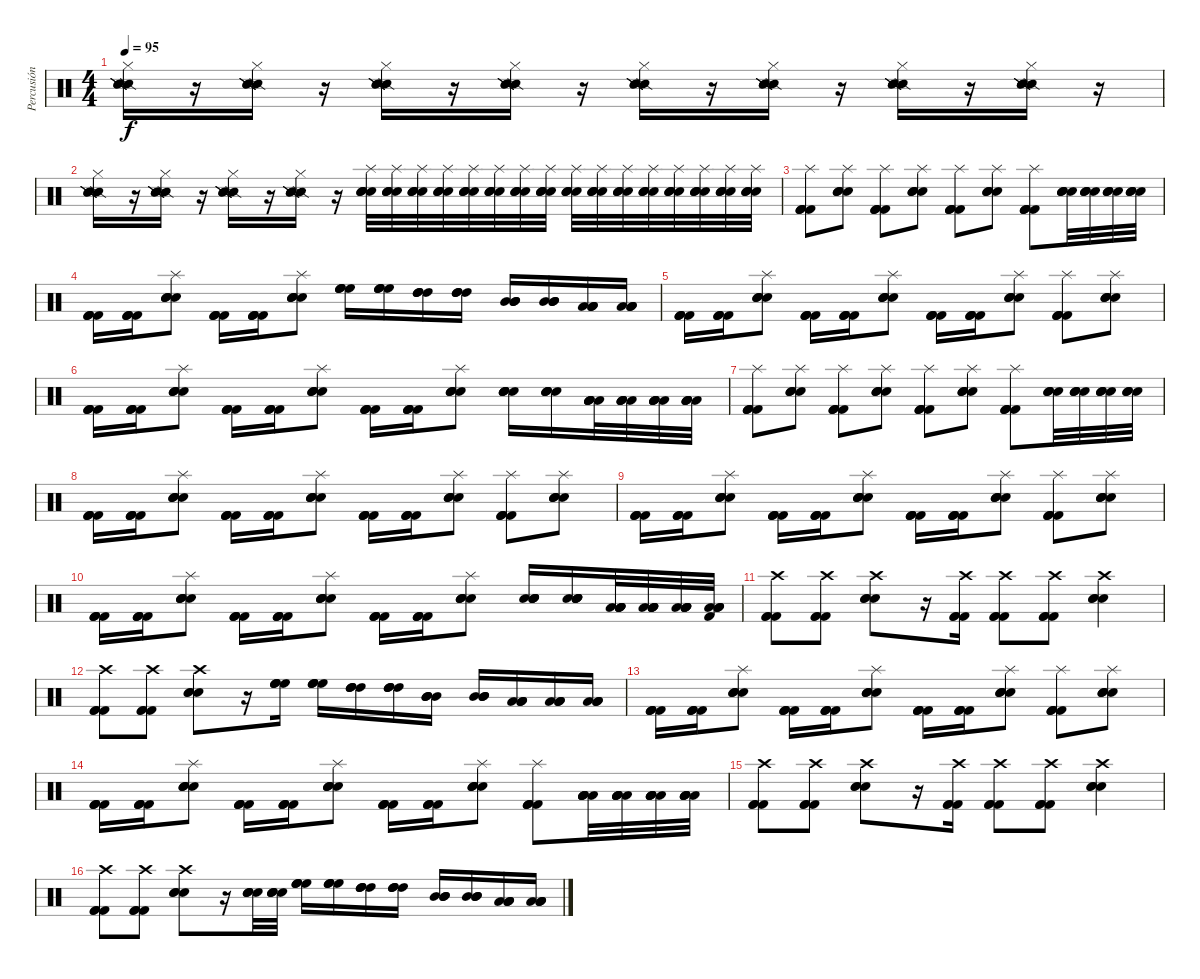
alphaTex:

\track ("Percusión" "Percusión") {instrument percussion}
\staff {score}
\articulation defaults
\ts (4 4)
\tempo 95
\clef neutral
\ks c
("Snare (side stick) 2" "Snare (side stick) 2" "Hi-Hat (closed)" "Snare (side stick) 2" "Snare (side stick) 2").16{dy f} r.16 ("Snare (side stick) 2" "Snare (side stick) 2" "Hi-Hat (closed)" "Snare (side stick) 2" "Snare (side stick) 2").16 r.16 ("Snare (side stick) 2" "Snare (side stick) 2" "Hi-Hat (closed)" "Snare (side stick) 2" "Snare (side stick) 2").16 r.16 ("Snare (side stick) 2" "Snare (side stick) 2" "Hi-Hat (closed)" "Snare (side stick) 2" "Snare (side stick) 2").16 r.16 ("Snare (side stick) 2" "Snare (side stick) 2" "Hi-Hat (closed)" "Snare (side stick) 2" "Snare (side stick) 2").16 r.16 ("Snare (side stick) 2" "Snare (side stick) 2" "Hi-Hat (closed)" "Snare (side stick) 2" "Snare (side stick) 2").16 r.16 ("Snare (side stick) 2" "Snare (side stick) 2" "Hi-Hat (closed)" "Snare (side stick) 2" "Snare (side stick) 2").16 r.16 ("Snare (side stick) 2" "Snare (side stick) 2" "Hi-Hat (closed)" "Snare (side stick) 2" "Snare (side stick) 2").16 r.16 |
("Snare (side stick) 2" "Snare (side stick) 2" "Hi-Hat (closed)" "Snare (side stick) 2" "Snare (side stick) 2").16 r.16 ("Snare (side stick) 2" "Snare (side stick) 2" "Hi-Hat (closed)" "Snare (side stick) 2" "Snare (side stick) 2").16 r.16 ("Snare (side stick) 2" "Snare (side stick) 2" "Hi-Hat (closed)" "Snare (side stick) 2" "Snare (side stick) 2").16 r.16 ("Snare (side stick) 2" "Snare (side stick) 2" "Hi-Hat (closed)" "Snare (side stick) 2" "Snare (side stick) 2").16 r.16 ("Electric Snare (hit)" "Splash (hit)" "Electric Snare (hit)" "Electric Snare (hit)" "Electric Snare (hit)").32 ("Electric Snare (hit)" "Splash (hit)" "Electric Snare (hit)" "Electric Snare (hit)" "Electric Snare (hit)").32 ("Electric Snare (hit)" "Splash (hit)" "Electric Snare (hit)" "Electric Snare (hit)" "Electric Snare (hit)").32 ("Electric Snare (hit)" "Splash (hit)" "Electric Snare (hit)" "Electric Snare (hit)" "Electric Snare (hit)").32 ("Electric Snare (hit)" "Splash (hit)" "Electric Snare (hit)" "Electric Snare (hit)" "Electric Snare (hit)").32 ("Electric Snare (hit)" "Splash (hit)" "Electric Snare (hit)" "Electric Snare (hit)" "Electric Snare (hit)").32 ("Electric Snare (hit)" "Splash (hit)" "Electric Snare (hit)" "Electric Snare (hit)" "Electric Snare (hit)").32 ("Electric Snare (hit)" "Splash (hit)" "Electric Snare (hit)" "Electric Snare (hit)" "Electric Snare (hit)").32 ("Electric Snare (hit)" "Splash (hit)" "Electric Snare (hit)" "Electric Snare (hit)" "Electric Snare (hit)").32 ("Electric Snare (hit)" "Splash (hit)" "Electric Snare (hit)" "Electric Snare (hit)" "Electric Snare (hit)").32 ("Electric Snare (hit)" "Splash (hit)" "Electric Snare (hit)" "Electric Snare (hit)" "Electric Snare (hit)").32 ("Electric Snare (hit)" "Splash (hit)" "Electric Snare (hit)" "Electric Snare (hit)" "Electric Snare (hit)").32 ("Electric Snare (hit)" "Splash (hit)" "Electric Snare (hit)" "Electric Snare (hit)" "Electric Snare (hit)").32 ("Electric Snare (hit)" "Splash (hit)" "Electric Snare (hit)" "Electric Snare (hit)" "Electric Snare (hit)").32 ("Electric Snare (hit)" "Splash (hit)" "Electric Snare (hit)" "Electric Snare (hit)" "Electric Snare (hit)").32 ("Electric Snare (hit)" "Splash (hit)" "Electric Snare (hit)" "Electric Snare (hit)" "Electric Snare (hit)").32 |
("Kick (hit) 2" "Kick (hit) 2" "Splash (hit)" "Kick (hit) 2" "Kick (hit) 2").8 ("Electric Snare (hit)" "Electric Snare (hit)" "Splash (hit)" "Electric Snare (hit)" "Electric Snare (hit)").8 ("Kick (hit) 2" "Kick (hit) 2" "Splash (hit)" "Kick (hit) 2" "Kick (hit) 2").8 ("Electric Snare (hit)" "Electric Snare (hit)" "Splash (hit)" "Electric Snare (hit)" "Electric Snare (hit)").8 ("Kick (hit) 2" "Kick (hit) 2" "Splash (hit)" "Kick (hit) 2" "Kick (hit) 2").8 ("Electric Snare (hit)" "Electric Snare (hit)" "Splash (hit)" "Electric Snare (hit)" "Electric Snare (hit)").8 ("Kick (hit) 2" "Kick (hit) 2" "Splash (hit)" "Kick (hit) 2" "Kick (hit) 2").8 ("Electric Snare (hit)" "Electric Snare (hit)" "Electric Snare (hit)" "Electric Snare (hit)").32 ("Electric Snare (hit)" "Electric Snare (hit)" "Electric Snare (hit)" "Electric Snare (hit)").32 ("Electric Snare (hit)" "Electric Snare (hit)" "Electric Snare (hit)" "Electric Snare (hit)").32 ("Electric Snare (hit)" "Electric Snare (hit)" "Electric Snare (hit)" "Electric Snare (hit)").32 |
("Kick (hit) 2" "Kick (hit) 2" "Kick (hit) 2" "Kick (hit) 2").16 ("Kick (hit) 2" "Kick (hit) 2" "Kick (hit) 2" "Kick (hit) 2").16 ("Electric Snare (hit)" "Electric Snare (hit)" "Splash (hit)" "Electric Snare (hit)" "Electric Snare (hit)").8 ("Kick (hit) 2" "Kick (hit) 2" "Kick (hit) 2" "Kick (hit) 2").16 ("Kick (hit) 2" "Kick (hit) 2" "Kick (hit) 2" "Kick (hit) 2").16 ("Electric Snare (hit)" "Electric Snare (hit)" "Splash (hit)" "Electric Snare (hit)" "Electric Snare (hit)").8 ("High Floor Tom (hit)" "High Floor Tom (hit)" "High Floor Tom (hit)" "High Floor Tom (hit)").16 ("High Floor Tom (hit)" "High Floor Tom (hit)" "High Floor Tom (hit)" "High Floor Tom (hit)").16 ("High Tom (hit)" "High Tom (hit)" "High Tom (hit)" "High Tom (hit)").16 ("High Tom (hit)" "High Tom (hit)" "High Tom (hit)" "High Tom (hit)").16 ("Mid Tom (hit)" "Mid Tom (hit)" "Mid Tom (hit)" "Mid Tom (hit)").16 ("Mid Tom (hit)" "Mid Tom (hit)" "Mid Tom (hit)" "Mid Tom (hit)").16 ("Low Tom (hit)" "Low Tom (hit)" "Low Tom (hit)" "Low Tom (hit)").16 ("Low Tom (hit)" "Low Tom (hit)" "Low Tom (hit)" "Low Tom (hit)").16 |
("Kick (hit) 2" "Kick (hit) 2" "Kick (hit) 2" "Kick (hit) 2").16 ("Kick (hit) 2" "Kick (hit) 2" "Kick (hit) 2" "Kick (hit) 2").16 ("Electric Snare (hit)" "Electric Snare (hit)" "Splash (hit)" "Electric Snare (hit)" "Electric Snare (hit)").8 ("Kick (hit) 2" "Kick (hit) 2" "Kick (hit) 2" "Kick (hit) 2").16 ("Kick (hit) 2" "Kick (hit) 2" "Kick (hit) 2" "Kick (hit) 2").16 ("Electric Snare (hit)" "Electric Snare (hit)" "Splash (hit)" "Electric Snare (hit)" "Electric Snare (hit)").8 ("Kick (hit) 2" "Kick (hit) 2" "Kick (hit) 2" "Kick (hit) 2").16 ("Kick (hit) 2" "Kick (hit) 2" "Kick (hit) 2" "Kick (hit) 2").16 ("Electric Snare (hit)" "Electric Snare (hit)" "Splash (hit)" "Electric Snare (hit)" "Electric Snare (hit)").8 ("Kick (hit) 2" "Kick (hit) 2" "Splash (hit)" "Kick (hit) 2" "Kick (hit) 2").8 ("Electric Snare (hit)" "Electric Snare (hit)" "Splash (hit)" "Electric Snare (hit)" "Electric Snare (hit)").8 |
("Kick (hit) 2" "Kick (hit) 2" "Kick (hit) 2" "Kick (hit) 2").16 ("Kick (hit) 2" "Kick (hit) 2" "Kick (hit) 2" "Kick (hit) 2").16 ("Electric Snare (hit)" "Electric Snare (hit)" "Splash (hit)" "Electric Snare (hit)" "Electric Snare (hit)").8 ("Kick (hit) 2" "Kick (hit) 2" "Kick (hit) 2" "Kick (hit) 2").16 ("Kick (hit) 2" "Kick (hit) 2" "Kick (hit) 2" "Kick (hit) 2").16 ("Electric Snare (hit)" "Electric Snare (hit)" "Splash (hit)" "Electric Snare (hit)" "Electric Snare (hit)").8 ("Kick (hit) 2" "Kick (hit) 2" "Kick (hit) 2" "Kick (hit) 2").16 ("Kick (hit) 2" "Kick (hit) 2" "Kick (hit) 2" "Kick (hit) 2").16 ("Electric Snare (hit)" "Electric Snare (hit)" "Splash (hit)" "Electric Snare (hit)" "Electric Snare (hit)").8 ("Electric Snare (hit)" "Electric Snare (hit)" "Electric Snare (hit)" "Electric Snare (hit)" "Electric Snare (hit)").16 ("Electric Snare (hit)" "Electric Snare (hit)" "Electric Snare (hit)" "Electric Snare (hit)" "Electric Snare (hit)").16 ("Low Tom (hit)" "Low Tom (hit)" "Low Tom (hit)" "Low Tom (hit)" "Low Tom (hit)").32 ("Low Tom (hit)" "Low Tom (hit)" "Low Tom (hit)" "Low Tom (hit)" "Low Tom (hit)").32 ("Low Tom (hit)" "Low Tom (hit)" "Low Tom (hit)" "Low Tom (hit)" "Low Tom (hit)").32 ("Low Tom (hit)" "Low Tom (hit)" "Low Tom (hit)" "Low Tom (hit)" "Low Tom (hit)").32 |
("Kick (hit) 2" "Kick (hit) 2" "Splash (hit)" "Kick (hit) 2" "Kick (hit) 2").8 ("Electric Snare (hit)" "Electric Snare (hit)" "Splash (hit)" "Electric Snare (hit)" "Electric Snare (hit)").8 ("Kick (hit) 2" "Kick (hit) 2" "Splash (hit)" "Kick (hit) 2" "Kick (hit) 2").8 ("Electric Snare (hit)" "Electric Snare (hit)" "Splash (hit)" "Electric Snare (hit)" "Electric Snare (hit)").8 ("Kick (hit) 2" "Kick (hit) 2" "Splash (hit)" "Kick (hit) 2" "Kick (hit) 2").8 ("Electric Snare (hit)" "Electric Snare (hit)" "Splash (hit)" "Electric Snare (hit)" "Electric Snare (hit)").8 ("Kick (hit) 2" "Kick (hit) 2" "Splash (hit)" "Kick (hit) 2" "Kick (hit) 2").8 ("Electric Snare (hit)" "Electric Snare (hit)" "Electric Snare (hit)" "Electric Snare (hit)").32 ("Electric Snare (hit)" "Electric Snare (hit)" "Electric Snare (hit)" "Electric Snare (hit)").32 ("Electric Snare (hit)" "Electric Snare (hit)" "Electric Snare (hit)" "Electric Snare (hit)").32 ("Electric Snare (hit)" "Electric Snare (hit)" "Electric Snare (hit)" "Electric Snare (hit)").32 |
("Kick (hit) 2" "Kick (hit) 2" "Kick (hit) 2" "Kick (hit) 2").16 ("Kick (hit) 2" "Kick (hit) 2" "Kick (hit) 2" "Kick (hit) 2").16 ("Electric Snare (hit)" "Electric Snare (hit)" "Splash (hit)" "Electric Snare (hit)" "Electric Snare (hit)").8 ("Kick (hit) 2" "Kick (hit) 2" "Kick (hit) 2" "Kick (hit) 2").16 ("Kick (hit) 2" "Kick (hit) 2" "Kick (hit) 2" "Kick (hit) 2").16 ("Electric Snare (hit)" "Electric Snare (hit)" "Splash (hit)" "Electric Snare (hit)" "Electric Snare (hit)").8 ("Kick (hit) 2" "Kick (hit) 2" "Kick (hit) 2" "Kick (hit) 2").16 ("Kick (hit) 2" "Kick (hit) 2" "Kick (hit) 2" "Kick (hit) 2").16 ("Electric Snare (hit)" "Electric Snare (hit)" "Splash (hit)" "Electric Snare (hit)" "Electric Snare (hit)").8 ("Kick (hit) 2" "Kick (hit) 2" "Splash (hit)" "Kick (hit) 2" "Kick (hit) 2").8 ("Electric Snare (hit)" "Electric Snare (hit)" "Splash (hit)" "Electric Snare (hit)" "Electric Snare (hit)").8 |
("Kick (hit) 2" "Kick (hit) 2" "Kick (hit) 2" "Kick (hit) 2").16 ("Kick (hit) 2" "Kick (hit) 2" "Kick (hit) 2" "Kick (hit) 2").16 ("Electric Snare (hit)" "Electric Snare (hit)" "Splash (hit)" "Electric Snare (hit)" "Electric Snare (hit)").8 ("Kick (hit) 2" "Kick (hit) 2" "Kick (hit) 2" "Kick (hit) 2").16 ("Kick (hit) 2" "Kick (hit) 2" "Kick (hit) 2" "Kick (hit) 2").16 ("Electric Snare (hit)" "Electric Snare (hit)" "Splash (hit)" "Electric Snare (hit)" "Electric Snare (hit)").8 ("Kick (hit) 2" "Kick (hit) 2" "Kick (hit) 2" "Kick (hit) 2").16 ("Kick (hit) 2" "Kick (hit) 2" "Kick (hit) 2" "Kick (hit) 2").16 ("Electric Snare (hit)" "Electric Snare (hit)" "Splash (hit)" "Electric Snare (hit)" "Electric Snare (hit)").8 ("Kick (hit) 2" "Kick (hit) 2" "Splash (hit)" "Kick (hit) 2" "Kick (hit) 2").8 ("Electric Snare (hit)" "Electric Snare (hit)" "Splash (hit)" "Electric Snare (hit)" "Electric Snare (hit)").8 |
("Kick (hit) 2" "Kick (hit) 2" "Kick (hit) 2" "Kick (hit) 2").16 ("Kick (hit) 2" "Kick (hit) 2" "Kick (hit) 2" "Kick (hit) 2").16 ("Electric Snare (hit)" "Electric Snare (hit)" "Splash (hit)" "Electric Snare (hit)" "Electric Snare (hit)").8 ("Kick (hit) 2" "Kick (hit) 2" "Kick (hit) 2" "Kick (hit) 2").16 ("Kick (hit) 2" "Kick (hit) 2" "Kick (hit) 2" "Kick (hit) 2").16 ("Electric Snare (hit)" "Electric Snare (hit)" "Splash (hit)" "Electric Snare (hit)" "Electric Snare (hit)").8 ("Kick (hit) 2" "Kick (hit) 2" "Kick (hit) 2" "Kick (hit) 2").16 ("Kick (hit) 2" "Kick (hit) 2" "Kick (hit) 2" "Kick (hit) 2").16 ("Electric Snare (hit)" "Electric Snare (hit)" "Splash (hit)" "Electric Snare (hit)" "Electric Snare (hit)").8 ("Electric Snare (hit)" "Electric Snare (hit)" "Electric Snare (hit)" "Electric Snare (hit)" "Electric Snare (hit)").16 ("Electric Snare (hit)" "Electric Snare (hit)" "Electric Snare (hit)" "Electric Snare (hit)" "Electric Snare (hit)").16 ("Low Tom (hit)" "Low Tom (hit)" "Low Tom (hit)" "Low Tom (hit)" "Low Tom (hit)").32 ("Low Tom (hit)" "Low Tom (hit)" "Low Tom (hit)" "Low Tom (hit)" "Low Tom (hit)").32 ("Low Tom (hit)" "Low Tom (hit)" "Low Tom (hit)" "Low Tom (hit)" "Low Tom (hit)").32 ("Low Tom (hit)" "Low Tom (hit)" "Low Tom (hit)" "Kick (hit) 2" "Low Tom (hit)").32 |
("Kick (hit) 2" "Crash high (hit)" "Kick (hit) 2" "Kick (hit) 2").8 ("Kick (hit) 2" "Crash high (hit)" "Kick (hit) 2" "Kick (hit) 2").8 ("Electric Snare (hit)" "Crash high (hit)" "Electric Snare (hit)" "Electric Snare (hit)").8 r.16 ("Kick (hit) 2" "Crash high (hit)" "Kick (hit) 2" "Kick (hit) 2").16 ("Kick (hit) 2" "Crash high (hit)" "Kick (hit) 2" "Kick (hit) 2").8 ("Kick (hit) 2" "Crash high (hit)" "Kick (hit) 2" "Kick (hit) 2").8 ("Electric Snare (hit)" "Crash high (hit)" "Electric Snare (hit)" "Electric Snare (hit)").4 |
("Kick (hit) 2" "Crash high (hit)" "Kick (hit) 2" "Kick (hit) 2").8 ("Kick (hit) 2" "Crash high (hit)" "Kick (hit) 2" "Kick (hit) 2").8 ("Electric Snare (hit)" "Crash high (hit)" "Electric Snare (hit)" "Electric Snare (hit)").8 r.16 ("High Floor Tom (hit)" "High Floor Tom (hit)" "High Floor Tom (hit)" "High Floor Tom (hit)").16 ("High Floor Tom (hit)" "High Floor Tom (hit)" "High Floor Tom (hit)" "High Floor Tom (hit)").16 ("High Tom (hit)" "High Tom (hit)" "High Tom (hit)" "High Tom (hit)").16 ("High Tom (hit)" "High Tom (hit)" "High Tom (hit)" "High Tom (hit)").16 ("Mid Tom (hit)" "Mid Tom (hit)" "Mid Tom (hit)" "Mid Tom (hit)").16 ("Mid Tom (hit)" "Mid Tom (hit)" "Mid Tom (hit)" "Mid Tom (hit)").16 ("Low Tom (hit)" "Low Tom (hit)" "Low Tom (hit)" "Low Tom (hit)").16 ("Low Tom (hit)" "Low Tom (hit)" "Low Tom (hit)" "Low Tom (hit)").16 ("Low Tom (hit)" "Low Tom (hit)" "Low Tom (hit)" "Low Tom (hit)").16 |
("Kick (hit) 2" "Kick (hit) 2" "Kick (hit) 2" "Kick (hit) 2").16 ("Kick (hit) 2" "Kick (hit) 2" "Kick (hit) 2" "Kick (hit) 2").16 ("Electric Snare (hit)" "Electric Snare (hit)" "Splash (hit)" "Electric Snare (hit)" "Electric Snare (hit)").8 ("Kick (hit) 2" "Kick (hit) 2" "Kick (hit) 2" "Kick (hit) 2").16 ("Kick (hit) 2" "Kick (hit) 2" "Kick (hit) 2" "Kick (hit) 2").16 ("Electric Snare (hit)" "Electric Snare (hit)" "Splash (hit)" "Electric Snare (hit)" "Electric Snare (hit)").8 ("Kick (hit) 2" "Kick (hit) 2" "Kick (hit) 2" "Kick (hit) 2").16 ("Kick (hit) 2" "Kick (hit) 2" "Kick (hit) 2" "Kick (hit) 2").16 ("Electric Snare (hit)" "Electric Snare (hit)" "Splash (hit)" "Electric Snare (hit)" "Electric Snare (hit)").8 ("Kick (hit) 2" "Kick (hit) 2" "Splash (hit)" "Kick (hit) 2" "Kick (hit) 2").8 ("Electric Snare (hit)" "Electric Snare (hit)" "Splash (hit)" "Electric Snare (hit)" "Electric Snare (hit)").8 |
("Kick (hit) 2" "Kick (hit) 2" "Kick (hit) 2" "Kick (hit) 2").16 ("Kick (hit) 2" "Kick (hit) 2" "Kick (hit) 2" "Kick (hit) 2").16 ("Electric Snare (hit)" "Electric Snare (hit)" "Splash (hit)" "Electric Snare (hit)" "Electric Snare (hit)").8 ("Kick (hit) 2" "Kick (hit) 2" "Kick (hit) 2" "Kick (hit) 2").16 ("Kick (hit) 2" "Kick (hit) 2" "Kick (hit) 2" "Kick (hit) 2").16 ("Electric Snare (hit)" "Electric Snare (hit)" "Splash (hit)" "Electric Snare (hit)" "Electric Snare (hit)").8 ("Kick (hit) 2" "Kick (hit) 2" "Kick (hit) 2" "Kick (hit) 2").16 ("Kick (hit) 2" "Kick (hit) 2" "Kick (hit) 2" "Kick (hit) 2").16 ("Electric Snare (hit)" "Electric Snare (hit)" "Splash (hit)" "Electric Snare (hit)" "Electric Snare (hit)").8 ("Kick (hit) 2" "Kick (hit) 2" "Splash (hit)" "Kick (hit) 2" "Kick (hit) 2").8 ("Low Tom (hit)" "Low Tom (hit)" "Low Tom (hit)" "Low Tom (hit)" "Low Tom (hit)").32 ("Low Tom (hit)" "Low Tom (hit)" "Low Tom (hit)" "Low Tom (hit)" "Low Tom (hit)").32 ("Low Tom (hit)" "Low Tom (hit)" "Low Tom (hit)" "Low Tom (hit)" "Low Tom (hit)").32 ("Low Tom (hit)" "Low Tom (hit)" "Low Tom (hit)" "Low Tom (hit)" "Low Tom (hit)").32 |
("Kick (hit) 2" "Crash high (hit)" "Kick (hit) 2" "Kick (hit) 2").8 ("Kick (hit) 2" "Crash high (hit)" "Kick (hit) 2" "Kick (hit) 2").8 ("Electric Snare (hit)" "Crash high (hit)" "Electric Snare (hit)" "Electric Snare (hit)").8 r.16 ("Kick (hit) 2" "Crash high (hit)" "Kick (hit) 2" "Kick (hit) 2").16 ("Kick (hit) 2" "Crash high (hit)" "Kick (hit) 2" "Kick (hit) 2").8 ("Kick (hit) 2" "Crash high (hit)" "Kick (hit) 2" "Kick (hit) 2").8 ("Electric Snare (hit)" "Crash high (hit)" "Electric Snare (hit)" "Electric Snare (hit)").4 |
("Kick (hit) 2" "Crash high (hit)" "Kick (hit) 2" "Kick (hit) 2").8 ("Kick (hit) 2" "Crash high (hit)" "Kick (hit) 2" "Kick (hit) 2").8 ("Electric Snare (hit)" "Crash high (hit)" "Electric Snare (hit)" "Electric Snare (hit)").8 r.16 ("Electric Snare (hit)" "Electric Snare (hit)" "Electric Snare (hit)" "Electric Snare (hit)").32 ("Electric Snare (hit)" "Electric Snare (hit)" "Electric Snare (hit)" "Electric Snare (hit)").32 ("High Floor Tom (hit)" "High Floor Tom (hit)" "High Floor Tom (hit)" "High Floor Tom (hit)").16 ("High Floor Tom (hit)" "High Floor Tom (hit)" "High Floor Tom (hit)" "High Floor Tom (hit)").16 ("High Tom (hit)" "High Tom (hit)" "High Tom (hit)" "High Tom (hit)").16 ("High Tom (hit)" "High Tom (hit)" "High Tom (hit)" "High Tom (hit)").16 ("Mid Tom (hit)" "Mid Tom (hit)" "Mid Tom (hit)" "Mid Tom (hit)").16 ("Mid Tom (hit)" "Mid Tom (hit)" "Mid Tom (hit)" "Mid Tom (hit)").16 ("Low Tom (hit)" "Low Tom (hit)" "Low Tom (hit)" "Low Tom (hit)").16 ("Low Tom (hit)" "Low Tom (hit)" "Low Tom (hit)" "Low Tom (hit)").16
